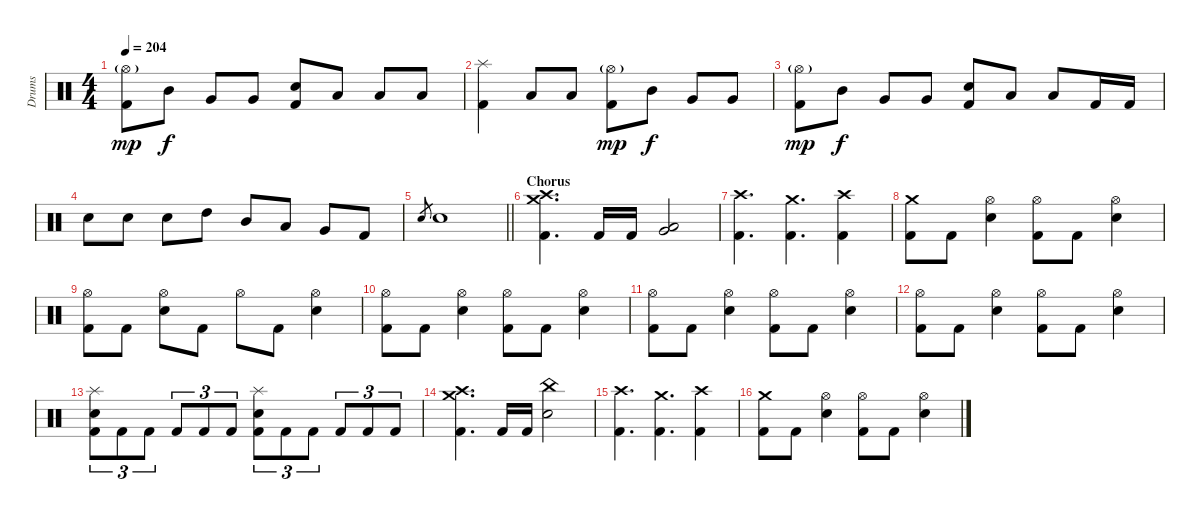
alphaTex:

\track ("Drums" "Drums") {instrument percussion}
\staff {score}
\articulation defaults
\ts (4 4)
\tempo 204
\clef neutral
\ks c
("Hi-Hat (open)"{g} "Kick (hit) 2").8{dy mp} "Mid Tom (hit)".8{dy f} "Very Low Tom (hit)".8 "Very Low Tom (hit)".8 ("Electric Snare (hit)" "Kick (hit) 2").8 "Low Tom (hit)".8 "Low Floor Tom (hit)".8 "Low Floor Tom (hit)".8 |
("Splash (hit)" "Kick (hit) 2").4 "Low Floor Tom (hit)".8 "Low Floor Tom (hit)".8 ("Hi-Hat (open)"{g} "Kick (hit) 2").8{dy mp} "Mid Tom (hit)".8{dy f} "Very Low Tom (hit)".8 "Very Low Tom (hit)".8 |
("Hi-Hat (open)"{g} "Kick (hit) 2").8{dy mp} "Mid Tom (hit)".8{dy f} "Very Low Tom (hit)".8 "Very Low Tom (hit)".8 ("Electric Snare (hit)" "Kick (hit) 2").8 "Low Tom (hit)".8 "Low Floor Tom (hit)".8 "Kick (hit) 2".16 "Kick (hit) 2".16 |
"Electric Snare (hit)".8 "Electric Snare (hit)".8 "Electric Snare (hit)".8 "High Tom (hit)".8 "Mid Tom (hit)".8 "Low Tom (hit)".8 "Very Low Tom (hit)".8 "Kick (hit) 2".8 |
\barLineRight lightlight "Electric Snare (hit)".8{gr} "Electric Snare (hit)".1
|
\section ("" "Chorus")
("Crash medium (hit)" "Crash high (hit)" "Kick (hit) 2").4{d} "Kick (hit) 2".16 "Kick (hit) 2".16 ("Very Low Tom (hit)" "Low Floor Tom (hit)").2 |
("Crash high (hit)" "Kick (hit) 2").4{d} ("Crash medium (hit)" "Kick (hit) 2").4{d} ("Crash high (hit)" "Kick (hit) 2").4 |
("Crash medium (hit)" "Kick (hit) 2").8 "Kick (hit) 2".8 ("Hi-Hat (open)" "Electric Snare (hit)").4 ("Hi-Hat (open)" "Kick (hit) 2").8 "Kick (hit) 2".8 ("Hi-Hat (open)" "Electric Snare (hit)").4 |
("Hi-Hat (open)" "Kick (hit) 2").8 "Kick (hit) 2".8 ("Hi-Hat (open)" "Electric Snare (hit)").8 "Kick (hit) 2".8 "Hi-Hat (open)".8 "Kick (hit) 2".8 ("Hi-Hat (open)" "Electric Snare (hit)").4 |
("Hi-Hat (open)" "Kick (hit) 2").8 "Kick (hit) 2".8 ("Hi-Hat (open)" "Electric Snare (hit)").4 ("Hi-Hat (open)" "Kick (hit) 2").8 "Kick (hit) 2".8 ("Hi-Hat (open)" "Electric Snare (hit)").4 |
("Hi-Hat (open)" "Kick (hit) 2").8 "Kick (hit) 2".8 ("Hi-Hat (open)" "Electric Snare (hit)").4 ("Hi-Hat (open)" "Kick (hit) 2").8 "Kick (hit) 2".8 ("Hi-Hat (open)" "Electric Snare (hit)").4 |
("Hi-Hat (open)" "Kick (hit) 2").8 "Kick (hit) 2".8 ("Hi-Hat (open)" "Electric Snare (hit)").4 ("Hi-Hat (open)" "Kick (hit) 2").8 "Kick (hit) 2".8 ("Hi-Hat (open)" "Electric Snare (hit)").4 |
("Splash (hit)" "Electric Snare (hit)" "Kick (hit) 2").8{tu (3 2)} "Kick (hit) 2".8{tu (3 2)} "Kick (hit) 2".8{tu (3 2)} "Kick (hit) 2".8{tu (3 2)} "Kick (hit) 2".8{tu (3 2)} "Kick (hit) 2".8{tu (3 2)} ("Splash (hit)" "Electric Snare (hit)" "Kick (hit) 2").8{tu (3 2)} "Kick (hit) 2".8{tu (3 2)} "Kick (hit) 2".8{tu (3 2)} "Kick (hit) 2".8{tu (3 2)} "Kick (hit) 2".8{tu (3 2)} "Kick (hit) 2".8{tu (3 2)} |
("Crash medium (hit)" "Crash high (hit)" "Kick (hit) 2").4{d} "Kick (hit) 2".16 "Kick (hit) 2".16 ("China (hit)" "Electric Snare (hit)").2 |
("Crash high (hit)" "Kick (hit) 2").4{d} ("Crash medium (hit)" "Kick (hit) 2").4{d} ("Crash high (hit)" "Kick (hit) 2").4 |
("Crash medium (hit)" "Kick (hit) 2").8 "Kick (hit) 2".8 ("Hi-Hat (open)" "Electric Snare (hit)").4 ("Hi-Hat (open)" "Kick (hit) 2").8 "Kick (hit) 2".8 ("Hi-Hat (open)" "Electric Snare (hit)").4
